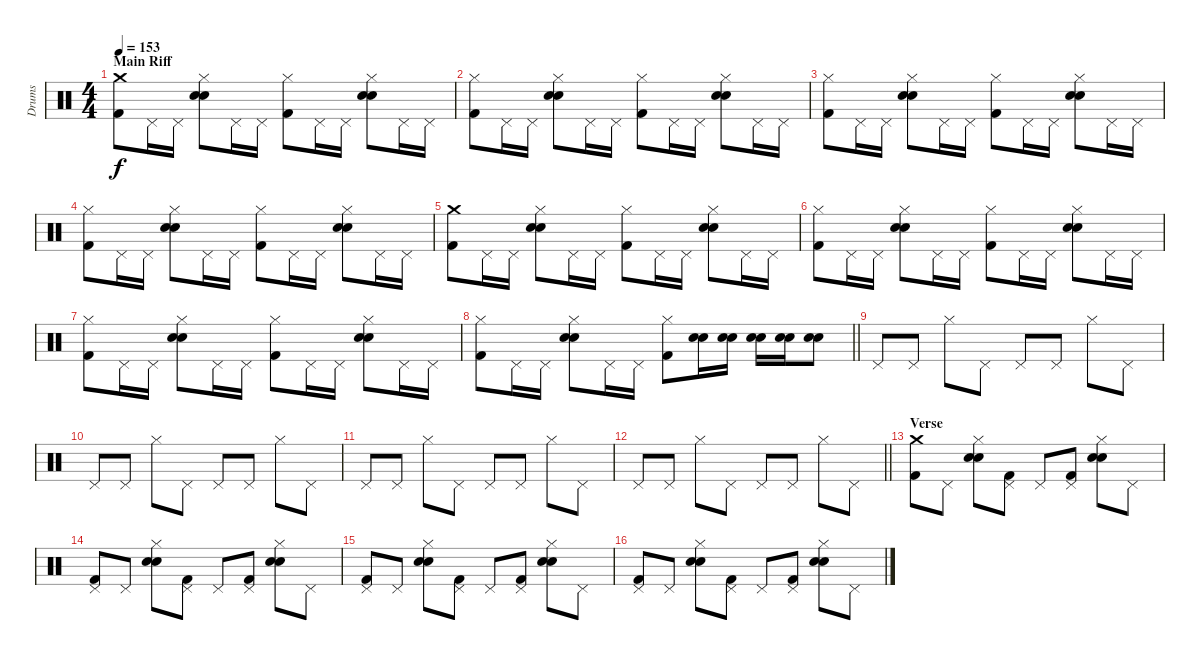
\track ("Drums" "Drums") {instrument percussion}
\staff {score}
\articulation defaults
\ts (4 4)
\section ("" "Main Riff")
\tempo 153
\clef neutral
\ks c
("Crash medium (hit)" "Kick (hit) 2").8{dy f} "Pedal Hi-Hat (hit)".16 "Pedal Hi-Hat (hit)".16 ("Hi-Hat (closed)" "Electric Snare (hit)" "Snare (hit) 2").8 "Pedal Hi-Hat (hit)".16 "Pedal Hi-Hat (hit)".16 ("Hi-Hat (closed)" "Kick (hit) 2").8 "Pedal Hi-Hat (hit)".16 "Pedal Hi-Hat (hit)".16 ("Hi-Hat (closed)" "Electric Snare (hit)" "Snare (hit) 2").8 "Pedal Hi-Hat (hit)".16 "Pedal Hi-Hat (hit)".16 |
("Hi-Hat (closed)" "Kick (hit) 2").8 "Pedal Hi-Hat (hit)".16 "Pedal Hi-Hat (hit)".16 ("Hi-Hat (closed)" "Electric Snare (hit)" "Snare (hit) 2").8 "Pedal Hi-Hat (hit)".16 "Pedal Hi-Hat (hit)".16 ("Hi-Hat (closed)" "Kick (hit) 2").8 "Pedal Hi-Hat (hit)".16 "Pedal Hi-Hat (hit)".16 ("Hi-Hat (closed)" "Electric Snare (hit)" "Snare (hit) 2").8 "Pedal Hi-Hat (hit)".16 "Pedal Hi-Hat (hit)".16 |
("Hi-Hat (closed)" "Kick (hit) 2").8 "Pedal Hi-Hat (hit)".16 "Pedal Hi-Hat (hit)".16 ("Hi-Hat (closed)" "Electric Snare (hit)" "Snare (hit) 2").8 "Pedal Hi-Hat (hit)".16 "Pedal Hi-Hat (hit)".16 ("Hi-Hat (closed)" "Kick (hit) 2").8 "Pedal Hi-Hat (hit)".16 "Pedal Hi-Hat (hit)".16 ("Hi-Hat (closed)" "Electric Snare (hit)" "Snare (hit) 2").8 "Pedal Hi-Hat (hit)".16 "Pedal Hi-Hat (hit)".16 |
("Hi-Hat (closed)" "Kick (hit) 2").8 "Pedal Hi-Hat (hit)".16 "Pedal Hi-Hat (hit)".16 ("Hi-Hat (closed)" "Electric Snare (hit)" "Snare (hit) 2").8 "Pedal Hi-Hat (hit)".16 "Pedal Hi-Hat (hit)".16 ("Hi-Hat (closed)" "Kick (hit) 2").8 "Pedal Hi-Hat (hit)".16 "Pedal Hi-Hat (hit)".16 ("Hi-Hat (closed)" "Electric Snare (hit)" "Snare (hit) 2").8 "Pedal Hi-Hat (hit)".16 "Pedal Hi-Hat (hit)".16 |
("Crash medium (hit)" "Kick (hit) 2").8 "Pedal Hi-Hat (hit)".16 "Pedal Hi-Hat (hit)".16 ("Hi-Hat (closed)" "Electric Snare (hit)" "Snare (hit) 2").8 "Pedal Hi-Hat (hit)".16 "Pedal Hi-Hat (hit)".16 ("Hi-Hat (closed)" "Kick (hit) 2").8 "Pedal Hi-Hat (hit)".16 "Pedal Hi-Hat (hit)".16 ("Hi-Hat (closed)" "Electric Snare (hit)" "Snare (hit) 2").8 "Pedal Hi-Hat (hit)".16 "Pedal Hi-Hat (hit)".16 |
("Hi-Hat (closed)" "Kick (hit) 2").8 "Pedal Hi-Hat (hit)".16 "Pedal Hi-Hat (hit)".16 ("Hi-Hat (closed)" "Electric Snare (hit)" "Snare (hit) 2").8 "Pedal Hi-Hat (hit)".16 "Pedal Hi-Hat (hit)".16 ("Hi-Hat (closed)" "Kick (hit) 2").8 "Pedal Hi-Hat (hit)".16 "Pedal Hi-Hat (hit)".16 ("Hi-Hat (closed)" "Electric Snare (hit)" "Snare (hit) 2").8 "Pedal Hi-Hat (hit)".16 "Pedal Hi-Hat (hit)".16 |
("Hi-Hat (closed)" "Kick (hit) 2").8 "Pedal Hi-Hat (hit)".16 "Pedal Hi-Hat (hit)".16 ("Hi-Hat (closed)" "Electric Snare (hit)" "Snare (hit) 2").8 "Pedal Hi-Hat (hit)".16 "Pedal Hi-Hat (hit)".16 ("Hi-Hat (closed)" "Kick (hit) 2").8 "Pedal Hi-Hat (hit)".16 "Pedal Hi-Hat (hit)".16 ("Hi-Hat (closed)" "Electric Snare (hit)" "Snare (hit) 2").8 "Pedal Hi-Hat (hit)".16 "Pedal Hi-Hat (hit)".16 |
\barLineRight lightlight
("Hi-Hat (closed)" "Kick (hit) 2").8 "Pedal Hi-Hat (hit)".16 "Pedal Hi-Hat (hit)".16 ("Hi-Hat (closed)" "Electric Snare (hit)" "Snare (hit) 2").8 "Pedal Hi-Hat (hit)".16 "Pedal Hi-Hat (hit)".16 ("Hi-Hat (closed)" "Kick (hit) 2").8 ("Electric Snare (hit)" "Snare (hit) 2").16 ("Electric Snare (hit)" "Snare (hit) 2").16 ("Electric Snare (hit)" "Snare (hit) 2").16 ("Electric Snare (hit)" "Snare (hit) 2").16 ("Electric Snare (hit)" "Snare (hit) 2").8 |
\section ("" "")
"Pedal Hi-Hat (hit)".8 "Pedal Hi-Hat (hit)".8 "Hi-Hat (closed)".8 "Pedal Hi-Hat (hit)".8 "Pedal Hi-Hat (hit)".8 "Pedal Hi-Hat (hit)".8 "Hi-Hat (closed)".8 "Pedal Hi-Hat (hit)".8 |
"Pedal Hi-Hat (hit)".8 "Pedal Hi-Hat (hit)".8 "Hi-Hat (closed)".8 "Pedal Hi-Hat (hit)".8 "Pedal Hi-Hat (hit)".8 "Pedal Hi-Hat (hit)".8 "Hi-Hat (closed)".8 "Pedal Hi-Hat (hit)".8 |
"Pedal Hi-Hat (hit)".8 "Pedal Hi-Hat (hit)".8 "Hi-Hat (closed)".8 "Pedal Hi-Hat (hit)".8 "Pedal Hi-Hat (hit)".8 "Pedal Hi-Hat (hit)".8 "Hi-Hat (closed)".8 "Pedal Hi-Hat (hit)".8 |
\barLineRight lightlight "Pedal Hi-Hat (hit)".8 "Pedal Hi-Hat (hit)".8 "Hi-Hat (closed)".8 "Pedal Hi-Hat (hit)".8 "Pedal Hi-Hat (hit)".8 "Pedal Hi-Hat (hit)".8 "Hi-Hat (closed)".8 "Pedal Hi-Hat (hit)".8
|
\section ("" "Verse")
("Crash medium (hit)" "Kick (hit) 2").8 "Pedal Hi-Hat (hit)".8 ("Hi-Hat (closed)" "Electric Snare (hit)" "Snare (hit) 2").8 ("Pedal Hi-Hat (hit)" "Kick (hit) 2").8 "Pedal Hi-Hat (hit)".8 ("Pedal Hi-Hat (hit)" "Kick (hit) 2").8 ("Hi-Hat (closed)" "Electric Snare (hit)" "Snare (hit) 2").8 "Pedal Hi-Hat (hit)".8 |
("Pedal Hi-Hat (hit)" "Kick (hit) 2").8 "Pedal Hi-Hat (hit)".8 ("Hi-Hat (closed)" "Electric Snare (hit)" "Snare (hit) 2").8 ("Pedal Hi-Hat (hit)" "Kick (hit) 2").8 "Pedal Hi-Hat (hit)".8 ("Pedal Hi-Hat (hit)" "Kick (hit) 2").8 ("Hi-Hat (closed)" "Electric Snare (hit)" "Snare (hit) 2").8 "Pedal Hi-Hat (hit)".8 |
("Pedal Hi-Hat (hit)" "Kick (hit) 2").8 "Pedal Hi-Hat (hit)".8 ("Hi-Hat (closed)" "Electric Snare (hit)" "Snare (hit) 2").8 ("Pedal Hi-Hat (hit)" "Kick (hit) 2").8 "Pedal Hi-Hat (hit)".8 ("Pedal Hi-Hat (hit)" "Kick (hit) 2").8 ("Hi-Hat (closed)" "Electric Snare (hit)" "Snare (hit) 2").8 "Pedal Hi-Hat (hit)".8 |
("Pedal Hi-Hat (hit)" "Kick (hit) 2").8 "Pedal Hi-Hat (hit)".8 ("Hi-Hat (closed)" "Electric Snare (hit)" "Snare (hit) 2").8 ("Pedal Hi-Hat (hit)" "Kick (hit) 2").8 "Pedal Hi-Hat (hit)".8 ("Pedal Hi-Hat (hit)" "Kick (hit) 2").8 ("Hi-Hat (closed)" "Electric Snare (hit)" "Snare (hit) 2").8 "Pedal Hi-Hat (hit)".8
